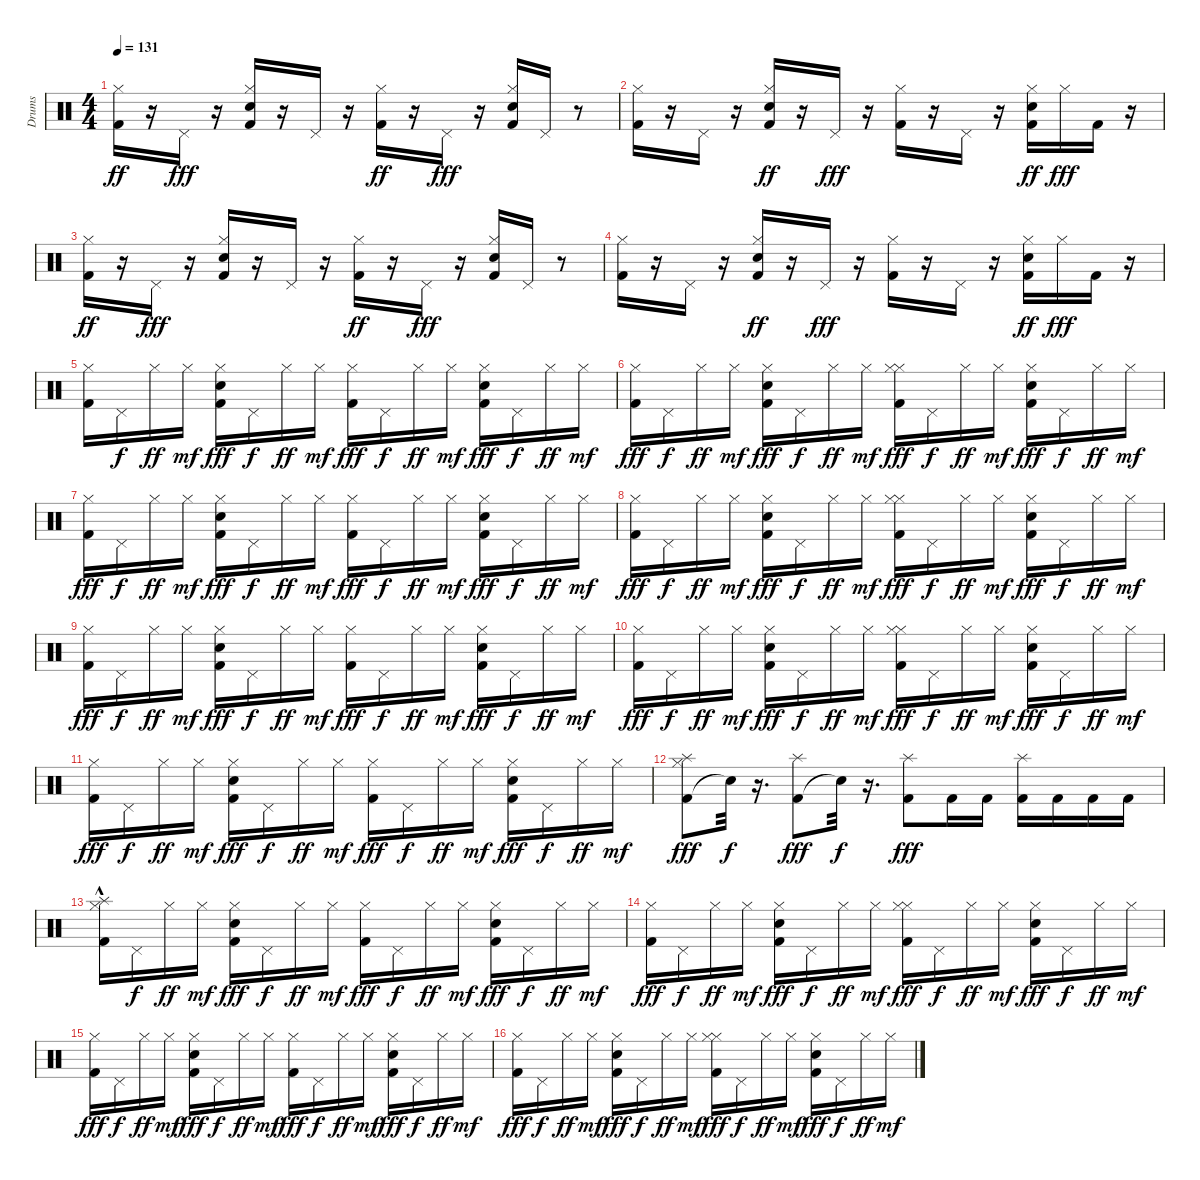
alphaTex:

\track ("Drums" "Drums") {instrument percussion}
\staff {score}
\articulation defaults
\ts (4 4)
\tempo 131
\clef neutral
\ks c
("Kick (hit) 2" "Hi-Hat (closed)").16{dy ff} r.16 "Pedal Hi-Hat (hit)".16{dy fff} r.16 ("Kick (hit) 2" "Hand Clap (hit)" "Hi-Hat (closed)").16 r.16 "Pedal Hi-Hat (hit)".16 r.16 ("Kick (hit) 2" "Hi-Hat (closed)").16{dy ff} r.16 "Pedal Hi-Hat (hit)".16{dy fff} r.16 ("Kick (hit) 2" "Hand Clap (hit)" "Hi-Hat (closed)").16 "Pedal Hi-Hat (hit)".16 r.8 |
("Kick (hit) 2" "Hi-Hat (closed)").16 r.16 "Pedal Hi-Hat (hit)".16 r.16 ("Kick (hit) 2" "Hand Clap (hit)" "Hi-Hat (closed)").16{dy ff} r.16 "Pedal Hi-Hat (hit)".16{dy fff} r.16 ("Kick (hit) 2" "Hi-Hat (closed)").16 r.16 "Pedal Hi-Hat (hit)".16 r.16 ("Kick (hit) 2" "Hand Clap (hit)" "Hi-Hat (closed)").16{dy ff} "Hi-Hat (closed)".16{dy fff} "Kick (hit) 2".16 r.16 |
("Kick (hit) 2" "Hi-Hat (closed)").16{dy ff} r.16 "Pedal Hi-Hat (hit)".16{dy fff} r.16 ("Kick (hit) 2" "Hand Clap (hit)" "Hi-Hat (closed)").16 r.16 "Pedal Hi-Hat (hit)".16 r.16 ("Kick (hit) 2" "Hi-Hat (closed)").16{dy ff} r.16 "Pedal Hi-Hat (hit)".16{dy fff} r.16 ("Kick (hit) 2" "Hand Clap (hit)" "Hi-Hat (closed)").16 "Pedal Hi-Hat (hit)".16 r.8 |
("Kick (hit) 2" "Hi-Hat (closed)").16 r.16 "Pedal Hi-Hat (hit)".16 r.16 ("Kick (hit) 2" "Hand Clap (hit)" "Hi-Hat (closed)").16{dy ff} r.16 "Pedal Hi-Hat (hit)".16{dy fff} r.16 ("Kick (hit) 2" "Hi-Hat (closed)").16 r.16 "Pedal Hi-Hat (hit)".16 r.16 ("Kick (hit) 2" "Hand Clap (hit)" "Hi-Hat (closed)").16{dy ff} "Hi-Hat (closed)".16{dy fff} "Kick (hit) 2".16 r.16 |
("Kick (hit) 2" "Hi-Hat (closed)").16 "Pedal Hi-Hat (hit)".16{dy f} "Hi-Hat (closed)".16{dy ff} "Hi-Hat (closed)".16{dy mf} ("Kick (hit) 2" "Hand Clap (hit)" "Hi-Hat (closed)").16{dy fff} "Pedal Hi-Hat (hit)".16{dy f} "Hi-Hat (closed)".16{dy ff} "Hi-Hat (closed)".16{dy mf} ("Kick (hit) 2" "Hi-Hat (closed)").16{dy fff} "Pedal Hi-Hat (hit)".16{dy f} "Hi-Hat (closed)".16{dy ff} "Hi-Hat (closed)".16{dy mf} ("Kick (hit) 2" "Hand Clap (hit)" "Hi-Hat (closed)").16{dy fff} "Pedal Hi-Hat (hit)".16{dy f} "Hi-Hat (closed)".16{dy ff} "Hi-Hat (closed)".16{dy mf} |
("Kick (hit) 2" "Hi-Hat (closed)").16{dy fff} "Pedal Hi-Hat (hit)".16{dy f} "Hi-Hat (closed)".16{dy ff} "Hi-Hat (closed)".16{dy mf} ("Kick (hit) 2" "Hand Clap (hit)" "Hi-Hat (closed)").16{dy fff} "Pedal Hi-Hat (hit)".16{dy f} "Hi-Hat (closed)".16{dy ff} "Hi-Hat (closed)".16{dy mf} ("Kick (hit) 2" "Hi-Hat (closed)" "Hi-Hat (closed)").16{dy fff} "Pedal Hi-Hat (hit)".16{dy f} "Hi-Hat (closed)".16{dy ff} "Hi-Hat (closed)".16{dy mf} ("Kick (hit) 2" "Hand Clap (hit)" "Hi-Hat (closed)").16{dy fff} "Pedal Hi-Hat (hit)".16{dy f} "Hi-Hat (closed)".16{dy ff} "Hi-Hat (closed)".16{dy mf} |
("Kick (hit) 2" "Hi-Hat (closed)").16{dy fff} "Pedal Hi-Hat (hit)".16{dy f} "Hi-Hat (closed)".16{dy ff} "Hi-Hat (closed)".16{dy mf} ("Kick (hit) 2" "Hand Clap (hit)" "Hi-Hat (closed)").16{dy fff} "Pedal Hi-Hat (hit)".16{dy f} "Hi-Hat (closed)".16{dy ff} "Hi-Hat (closed)".16{dy mf} ("Kick (hit) 2" "Hi-Hat (closed)").16{dy fff} "Pedal Hi-Hat (hit)".16{dy f} "Hi-Hat (closed)".16{dy ff} "Hi-Hat (closed)".16{dy mf} ("Kick (hit) 2" "Hand Clap (hit)" "Hi-Hat (closed)").16{dy fff} "Pedal Hi-Hat (hit)".16{dy f} "Hi-Hat (closed)".16{dy ff} "Hi-Hat (closed)".16{dy mf} |
("Kick (hit) 2" "Hi-Hat (closed)").16{dy fff} "Pedal Hi-Hat (hit)".16{dy f} "Hi-Hat (closed)".16{dy ff} "Hi-Hat (closed)".16{dy mf} ("Kick (hit) 2" "Hand Clap (hit)" "Hi-Hat (closed)").16{dy fff} "Pedal Hi-Hat (hit)".16{dy f} "Hi-Hat (closed)".16{dy ff} "Hi-Hat (closed)".16{dy mf} ("Kick (hit) 2" "Hi-Hat (closed)" "Hi-Hat (closed)").16{dy fff} "Pedal Hi-Hat (hit)".16{dy f} "Hi-Hat (closed)".16{dy ff} "Hi-Hat (closed)".16{dy mf} ("Kick (hit) 2" "Hand Clap (hit)" "Hi-Hat (closed)").16{dy fff} "Pedal Hi-Hat (hit)".16{dy f} "Hi-Hat (closed)".16{dy ff} "Hi-Hat (closed)".16{dy mf} |
("Kick (hit) 2" "Hi-Hat (closed)").16{dy fff} "Pedal Hi-Hat (hit)".16{dy f} "Hi-Hat (closed)".16{dy ff} "Hi-Hat (closed)".16{dy mf} ("Kick (hit) 2" "Hand Clap (hit)" "Hi-Hat (closed)").16{dy fff} "Pedal Hi-Hat (hit)".16{dy f} "Hi-Hat (closed)".16{dy ff} "Hi-Hat (closed)".16{dy mf} ("Kick (hit) 2" "Hi-Hat (closed)").16{dy fff} "Pedal Hi-Hat (hit)".16{dy f} "Hi-Hat (closed)".16{dy ff} "Hi-Hat (closed)".16{dy mf} ("Kick (hit) 2" "Hand Clap (hit)" "Hi-Hat (closed)").16{dy fff} "Pedal Hi-Hat (hit)".16{dy f} "Hi-Hat (closed)".16{dy ff} "Hi-Hat (closed)".16{dy mf} |
("Kick (hit) 2" "Hi-Hat (closed)").16{dy fff} "Pedal Hi-Hat (hit)".16{dy f} "Hi-Hat (closed)".16{dy ff} "Hi-Hat (closed)".16{dy mf} ("Kick (hit) 2" "Hand Clap (hit)" "Hi-Hat (closed)").16{dy fff} "Pedal Hi-Hat (hit)".16{dy f} "Hi-Hat (closed)".16{dy ff} "Hi-Hat (closed)".16{dy mf} ("Kick (hit) 2" "Hi-Hat (closed)" "Hi-Hat (closed)").16{dy fff} "Pedal Hi-Hat (hit)".16{dy f} "Hi-Hat (closed)".16{dy ff} "Hi-Hat (closed)".16{dy mf} ("Kick (hit) 2" "Hand Clap (hit)" "Hi-Hat (closed)").16{dy fff} "Pedal Hi-Hat (hit)".16{dy f} "Hi-Hat (closed)".16{dy ff} "Hi-Hat (closed)".16{dy mf} |
("Kick (hit) 2" "Hi-Hat (closed)").16{dy fff} "Pedal Hi-Hat (hit)".16{dy f} "Hi-Hat (closed)".16{dy ff} "Hi-Hat (closed)".16{dy mf} ("Kick (hit) 2" "Hand Clap (hit)" "Hi-Hat (closed)").16{dy fff} "Pedal Hi-Hat (hit)".16{dy f} "Hi-Hat (closed)".16{dy ff} "Hi-Hat (closed)".16{dy mf} ("Kick (hit) 2" "Hi-Hat (closed)").16{dy fff} "Pedal Hi-Hat (hit)".16{dy f} "Hi-Hat (closed)".16{dy ff} "Hi-Hat (closed)".16{dy mf} ("Kick (hit) 2" "Hand Clap (hit)" "Hi-Hat (closed)").16{dy fff} "Pedal Hi-Hat (hit)".16{dy f} "Hi-Hat (closed)".16{dy ff} "Hi-Hat (closed)".16{dy mf} |
("Kick (hit) 2" "Splash (hit)" "Hi-Hat (closed)").8{dy fff} "Snare (hit)"{t}.32{dy f} r.16{d} ("Kick (hit) 2" "Splash (hit)").8{dy fff} "Snare (hit)"{t}.32{dy f} r.16{d} ("Kick (hit) 2" "Splash (hit)").8{dy fff} "Kick (hit) 2".16 "Kick (hit) 2".16 ("Kick (hit) 2" "Splash (hit)").16 "Kick (hit) 2".16 "Kick (hit) 2".16 "Kick (hit) 2".16 |
("Kick (hit) 2" "Splash (hit)"{hac} "Hi-Hat (closed)").16 "Pedal Hi-Hat (hit)".16{dy f} "Hi-Hat (closed)".16{dy ff} "Hi-Hat (closed)".16{dy mf} ("Kick (hit) 2" "Hand Clap (hit)" "Hi-Hat (closed)").16{dy fff} "Pedal Hi-Hat (hit)".16{dy f} "Hi-Hat (closed)".16{dy ff} "Hi-Hat (closed)".16{dy mf} ("Kick (hit) 2" "Hi-Hat (closed)").16{dy fff} "Pedal Hi-Hat (hit)".16{dy f} "Hi-Hat (closed)".16{dy ff} "Hi-Hat (closed)".16{dy mf} ("Kick (hit) 2" "Hand Clap (hit)" "Hi-Hat (closed)").16{dy fff} "Pedal Hi-Hat (hit)".16{dy f} "Hi-Hat (closed)".16{dy ff} "Hi-Hat (closed)".16{dy mf} |
("Kick (hit) 2" "Hi-Hat (closed)").16{dy fff} "Pedal Hi-Hat (hit)".16{dy f} "Hi-Hat (closed)".16{dy ff} "Hi-Hat (closed)".16{dy mf} ("Kick (hit) 2" "Hand Clap (hit)" "Hi-Hat (closed)").16{dy fff} "Pedal Hi-Hat (hit)".16{dy f} "Hi-Hat (closed)".16{dy ff} "Hi-Hat (closed)".16{dy mf} ("Kick (hit) 2" "Hi-Hat (closed)" "Hi-Hat (closed)").16{dy fff} "Pedal Hi-Hat (hit)".16{dy f} "Hi-Hat (closed)".16{dy ff} "Hi-Hat (closed)".16{dy mf} ("Kick (hit) 2" "Hand Clap (hit)" "Hi-Hat (closed)").16{dy fff} "Pedal Hi-Hat (hit)".16{dy f} "Hi-Hat (closed)".16{dy ff} "Hi-Hat (closed)".16{dy mf} |
("Kick (hit) 2" "Hi-Hat (closed)").16{dy fff} "Pedal Hi-Hat (hit)".16{dy f} "Hi-Hat (closed)".16{dy ff} "Hi-Hat (closed)".16{dy mf} ("Kick (hit) 2" "Hand Clap (hit)" "Hi-Hat (closed)").16{dy fff} "Pedal Hi-Hat (hit)".16{dy f} "Hi-Hat (closed)".16{dy ff} "Hi-Hat (closed)".16{dy mf} ("Kick (hit) 2" "Hi-Hat (closed)").16{dy fff} "Pedal Hi-Hat (hit)".16{dy f} "Hi-Hat (closed)".16{dy ff} "Hi-Hat (closed)".16{dy mf} ("Kick (hit) 2" "Hand Clap (hit)" "Hi-Hat (closed)").16{dy fff} "Pedal Hi-Hat (hit)".16{dy f} "Hi-Hat (closed)".16{dy ff} "Hi-Hat (closed)".16{dy mf} |
("Kick (hit) 2" "Hi-Hat (closed)").16{dy fff} "Pedal Hi-Hat (hit)".16{dy f} "Hi-Hat (closed)".16{dy ff} "Hi-Hat (closed)".16{dy mf} ("Kick (hit) 2" "Hand Clap (hit)" "Hi-Hat (closed)").16{dy fff} "Pedal Hi-Hat (hit)".16{dy f} "Hi-Hat (closed)".16{dy ff} "Hi-Hat (closed)".16{dy mf} ("Kick (hit) 2" "Hi-Hat (closed)" "Hi-Hat (closed)").16{dy fff} "Pedal Hi-Hat (hit)".16{dy f} "Hi-Hat (closed)".16{dy ff} "Hi-Hat (closed)".16{dy mf} ("Kick (hit) 2" "Hand Clap (hit)" "Hi-Hat (closed)").16{dy fff} "Pedal Hi-Hat (hit)".16{dy f} "Hi-Hat (closed)".16{dy ff} "Hi-Hat (closed)".16{dy mf}
